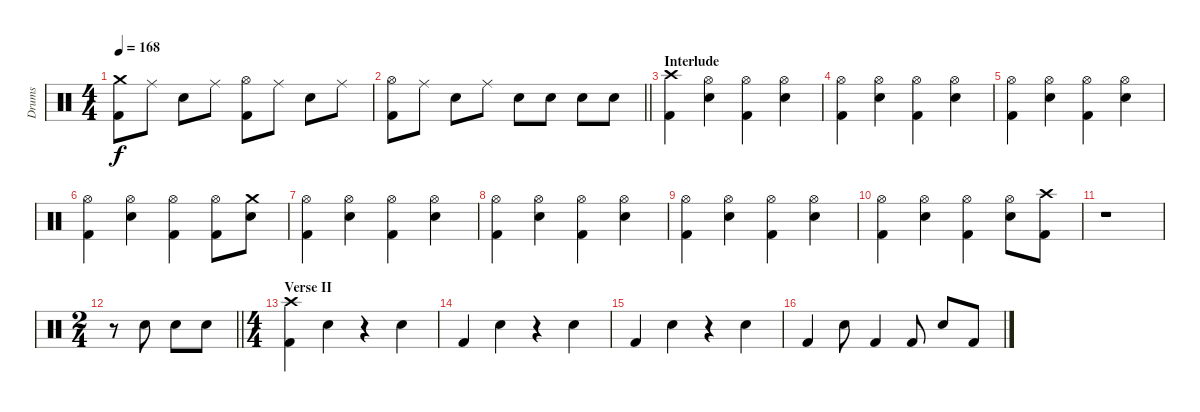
\track ("Drums" "Drums") {instrument percussion}
\staff {score}
\articulation defaults
\ts (4 4)
\tempo 168
\clef neutral
\ks c
("Crash medium (hit)" "Kick (hit) 2").8{dy f} "Ride (middle)".8 "Snare (hit) 2".8 "Ride (middle)".8 ("Hi-Hat (open)" "Kick (hit) 2").8 "Ride (middle)".8 "Snare (hit) 2".8 "Ride (middle)".8 |
\barLineRight lightlight
("Hi-Hat (open)" "Kick (hit) 2").8 "Ride (middle)".8 "Snare (hit) 2".8 "Ride (middle)".8 "Snare (hit) 2".8 "Snare (hit) 2".8 "Snare (hit) 2".8 "Snare (hit) 2".8 |
\section ("" "Interlude")
("Crash high (hit)" "Kick (hit) 2").4 ("Hi-Hat (open)" "Snare (hit) 2").4 ("Hi-Hat (open)" "Kick (hit) 2").4 ("Hi-Hat (open)" "Snare (hit) 2").4 |
("Hi-Hat (open)" "Kick (hit) 2").4 ("Hi-Hat (open)" "Snare (hit) 2").4 ("Hi-Hat (open)" "Kick (hit) 2").4 ("Hi-Hat (open)" "Snare (hit) 2").4 |
("Hi-Hat (open)" "Kick (hit) 2").4 ("Hi-Hat (open)" "Snare (hit) 2").4 ("Hi-Hat (open)" "Kick (hit) 2").4 ("Hi-Hat (open)" "Snare (hit) 2").4 |
("Hi-Hat (open)" "Kick (hit) 2").4 ("Hi-Hat (open)" "Snare (hit) 2").4 ("Hi-Hat (open)" "Kick (hit) 2").4 ("Hi-Hat (open)" "Kick (hit) 2").8 ("Crash medium (hit)" "Snare (hit) 2").8 |
("Hi-Hat (open)" "Kick (hit) 2").4 ("Hi-Hat (open)" "Snare (hit) 2").4 ("Hi-Hat (open)" "Kick (hit) 2").4 ("Hi-Hat (open)" "Snare (hit) 2").4 |
("Hi-Hat (open)" "Kick (hit) 2").4 ("Hi-Hat (open)" "Snare (hit) 2").4 ("Hi-Hat (open)" "Kick (hit) 2").4 ("Hi-Hat (open)" "Snare (hit) 2").4 |
("Hi-Hat (open)" "Kick (hit) 2").4 ("Hi-Hat (open)" "Snare (hit) 2").4 ("Hi-Hat (open)" "Kick (hit) 2").4 ("Hi-Hat (open)" "Snare (hit) 2").4 |
("Hi-Hat (open)" "Kick (hit) 2").4 ("Hi-Hat (open)" "Snare (hit) 2").4 ("Hi-Hat (open)" "Kick (hit) 2").4 ("Hi-Hat (open)" "Snare (hit) 2").8 ("Crash high (hit)" "Kick (hit) 2").8 |
r.1 |
\ts (2 4)
\barLineRight lightlight
r.8 "Snare (hit) 2".8 "Snare (hit) 2".8 "Snare (hit) 2".8 |
\ts (4 4)
\section ("" "Verse II")
("Crash high (hit)" "Kick (hit) 2").4 "Snare (hit) 2".4 r.4 "Snare (hit) 2".4 |
"Kick (hit) 2".4 "Snare (hit) 2".4 r.4 "Snare (hit) 2".4 |
"Kick (hit) 2".4 "Snare (hit) 2".4 r.4 "Snare (hit) 2".4 |
"Kick (hit) 2".4 "Snare (hit) 2".8 "Kick (hit) 2".4 "Kick (hit) 2".8 "Snare (hit) 2".8 "Kick (hit) 2".8
